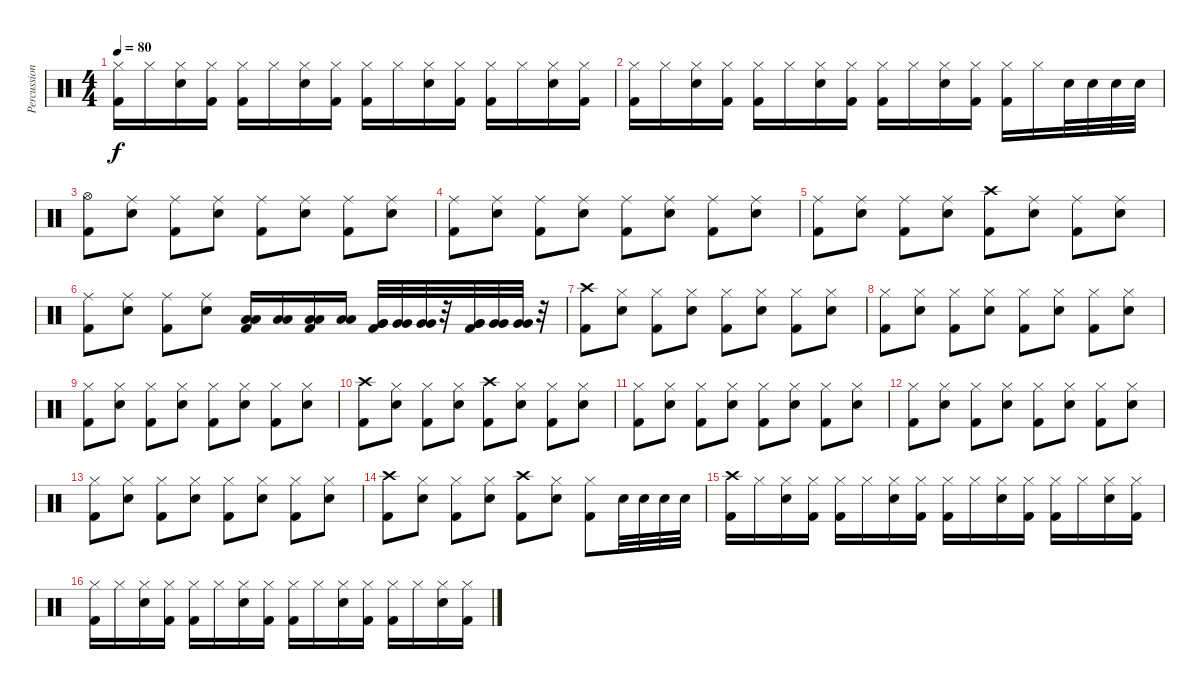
\track ("Percussion" "Percussion") {instrument percussion}
\staff {score}
\articulation defaults
\ts (4 4)
\tempo 80
\clef neutral
\ks c
("Hi-Hat (closed)" "Kick (hit) 2").16{dy f} "Hi-Hat (closed)".16 ("Hi-Hat (closed)" "Snare (hit) 2").16 ("Hi-Hat (closed)" "Kick (hit) 2").16 ("Hi-Hat (closed)" "Kick (hit) 2").16 "Hi-Hat (closed)".16 ("Hi-Hat (closed)" "Snare (hit) 2").16 ("Hi-Hat (closed)" "Kick (hit) 2").16 ("Hi-Hat (closed)" "Kick (hit) 2").16 "Hi-Hat (closed)".16 ("Hi-Hat (closed)" "Snare (hit) 2").16 ("Hi-Hat (closed)" "Kick (hit) 2").16 ("Hi-Hat (closed)" "Kick (hit) 2").16 "Hi-Hat (closed)".16 ("Hi-Hat (closed)" "Snare (hit) 2").16 ("Hi-Hat (closed)" "Kick (hit) 2").16 |
("Hi-Hat (closed)" "Kick (hit) 2").16 "Hi-Hat (closed)".16 ("Hi-Hat (closed)" "Snare (hit) 2").16 ("Hi-Hat (closed)" "Kick (hit) 2").16 ("Hi-Hat (closed)" "Kick (hit) 2").16 "Hi-Hat (closed)".16 ("Hi-Hat (closed)" "Snare (hit) 2").16 ("Hi-Hat (closed)" "Kick (hit) 2").16 ("Hi-Hat (closed)" "Kick (hit) 2").16 "Hi-Hat (closed)".16 ("Hi-Hat (closed)" "Snare (hit) 2").16 ("Hi-Hat (closed)" "Kick (hit) 2").16 ("Hi-Hat (closed)" "Kick (hit) 2").16 "Hi-Hat (closed)".16 "Snare (hit) 2".32 "Snare (hit) 2".32 "Snare (hit) 2".32 "Snare (hit) 2".32 |
("Hi-Hat (open)" "Kick (hit) 2").8 ("Ride (middle)" "Snare (hit) 2").8 ("Ride (middle)" "Kick (hit) 2").8 ("Ride (middle)" "Snare (hit) 2").8 ("Ride (middle)" "Kick (hit) 2").8 ("Ride (middle)" "Snare (hit) 2").8 ("Ride (middle)" "Kick (hit) 2").8 ("Ride (middle)" "Snare (hit) 2").8 |
("Ride (middle)" "Kick (hit) 2").8 ("Ride (middle)" "Snare (hit) 2").8 ("Ride (middle)" "Kick (hit) 2").8 ("Ride (middle)" "Snare (hit) 2").8 ("Ride (middle)" "Kick (hit) 2").8 ("Ride (middle)" "Snare (hit) 2").8 ("Ride (middle)" "Kick (hit) 2").8 ("Ride (middle)" "Snare (hit) 2").8 |
("Ride (middle)" "Kick (hit) 2").8 ("Ride (middle)" "Snare (hit) 2").8 ("Ride (middle)" "Kick (hit) 2").8 ("Ride (middle)" "Snare (hit) 2").8 ("Crash high (hit)" "Kick (hit) 2").8 ("Ride (middle)" "Snare (hit) 2").8 ("Ride (middle)" "Kick (hit) 2").8 ("Ride (middle)" "Snare (hit) 2").8 |
("Ride (middle)" "Kick (hit) 2").8 ("Ride (middle)" "Snare (hit) 2").8 ("Ride (middle)" "Kick (hit) 2").8 ("Ride (middle)" "Snare (hit) 2").8 ("Low Tom (hit)" "Low Tom (hit)" "Kick (hit) 2").16 ("Low Tom (hit)" "Low Tom (hit)").16 ("Low Tom (hit)" "Low Tom (hit)" "Kick (hit) 2").16 ("Low Tom (hit)" "Low Tom (hit)").16 ("Very Low Tom (hit)" "Very Low Tom (hit)" "Kick (hit) 2").32 ("Very Low Tom (hit)" "Very Low Tom (hit)").32 ("Very Low Tom (hit)" "Very Low Tom (hit)").32 r.32 ("Very Low Tom (hit)" "Very Low Tom (hit)" "Kick (hit) 2").32 ("Very Low Tom (hit)" "Very Low Tom (hit)").32 ("Very Low Tom (hit)" "Very Low Tom (hit)").32 r.32 |
("Crash high (hit)" "Kick (hit) 2").8 ("Hi-Hat (closed)" "Snare (hit) 2").8 ("Hi-Hat (closed)" "Kick (hit) 2").8 ("Hi-Hat (closed)" "Snare (hit) 2").8 ("Hi-Hat (closed)" "Kick (hit) 2").8 ("Hi-Hat (closed)" "Snare (hit) 2").8 ("Hi-Hat (closed)" "Kick (hit) 2").8 ("Hi-Hat (closed)" "Snare (hit) 2").8 |
("Hi-Hat (closed)" "Kick (hit) 2").8 ("Hi-Hat (closed)" "Snare (hit) 2").8 ("Hi-Hat (closed)" "Kick (hit) 2").8 ("Hi-Hat (closed)" "Snare (hit) 2").8 ("Hi-Hat (closed)" "Kick (hit) 2").8 ("Hi-Hat (closed)" "Snare (hit) 2").8 ("Hi-Hat (closed)" "Kick (hit) 2").8 ("Hi-Hat (closed)" "Snare (hit) 2").8 |
("Hi-Hat (closed)" "Kick (hit) 2").8 ("Hi-Hat (closed)" "Snare (hit) 2").8 ("Hi-Hat (closed)" "Kick (hit) 2").8 ("Hi-Hat (closed)" "Snare (hit) 2").8 ("Hi-Hat (closed)" "Kick (hit) 2").8 ("Hi-Hat (closed)" "Snare (hit) 2").8 ("Hi-Hat (closed)" "Kick (hit) 2").8 ("Hi-Hat (closed)" "Snare (hit) 2").8 |
("Crash high (hit)" "Kick (hit) 2").8 ("Hi-Hat (closed)" "Snare (hit) 2").8 ("Hi-Hat (closed)" "Kick (hit) 2").8 ("Hi-Hat (closed)" "Snare (hit) 2").8 ("Crash high (hit)" "Kick (hit) 2").8 ("Hi-Hat (closed)" "Snare (hit) 2").8 ("Hi-Hat (closed)" "Kick (hit) 2").8 ("Hi-Hat (closed)" "Snare (hit) 2").8 |
("Hi-Hat (closed)" "Kick (hit) 2").8 ("Hi-Hat (closed)" "Snare (hit) 2").8 ("Hi-Hat (closed)" "Kick (hit) 2").8 ("Hi-Hat (closed)" "Snare (hit) 2").8 ("Hi-Hat (closed)" "Kick (hit) 2").8 ("Hi-Hat (closed)" "Snare (hit) 2").8 ("Hi-Hat (closed)" "Kick (hit) 2").8 ("Hi-Hat (closed)" "Snare (hit) 2").8 |
("Hi-Hat (closed)" "Kick (hit) 2").8 ("Hi-Hat (closed)" "Snare (hit) 2").8 ("Hi-Hat (closed)" "Kick (hit) 2").8 ("Hi-Hat (closed)" "Snare (hit) 2").8 ("Hi-Hat (closed)" "Kick (hit) 2").8 ("Hi-Hat (closed)" "Snare (hit) 2").8 ("Hi-Hat (closed)" "Kick (hit) 2").8 ("Hi-Hat (closed)" "Snare (hit) 2").8 |
("Hi-Hat (closed)" "Kick (hit) 2").8 ("Hi-Hat (closed)" "Snare (hit) 2").8 ("Hi-Hat (closed)" "Kick (hit) 2").8 ("Hi-Hat (closed)" "Snare (hit) 2").8 ("Hi-Hat (closed)" "Kick (hit) 2").8 ("Hi-Hat (closed)" "Snare (hit) 2").8 ("Hi-Hat (closed)" "Kick (hit) 2").8 ("Hi-Hat (closed)" "Snare (hit) 2").8 |
("Crash high (hit)" "Kick (hit) 2").8 ("Hi-Hat (closed)" "Snare (hit) 2").8 ("Hi-Hat (closed)" "Kick (hit) 2").8 ("Hi-Hat (closed)" "Snare (hit) 2").8 ("Crash high (hit)" "Kick (hit) 2").8 ("Hi-Hat (closed)" "Snare (hit) 2").8 ("Hi-Hat (closed)" "Kick (hit) 2").8 "Snare (hit) 2".32 "Snare (hit) 2".32 "Snare (hit) 2".32 "Snare (hit) 2".32 |
("Crash high (hit)" "Kick (hit) 2").16 "Hi-Hat (closed)".16 ("Hi-Hat (closed)" "Snare (hit) 2").16 ("Hi-Hat (closed)" "Kick (hit) 2").16 ("Hi-Hat (closed)" "Kick (hit) 2").16 "Hi-Hat (closed)".16 ("Hi-Hat (closed)" "Snare (hit) 2").16 ("Hi-Hat (closed)" "Kick (hit) 2").16 ("Hi-Hat (closed)" "Kick (hit) 2").16 "Hi-Hat (closed)".16 ("Hi-Hat (closed)" "Snare (hit) 2").16 ("Hi-Hat (closed)" "Kick (hit) 2").16 ("Hi-Hat (closed)" "Kick (hit) 2").16 "Hi-Hat (closed)".16 ("Hi-Hat (closed)" "Snare (hit) 2").16 ("Hi-Hat (closed)" "Kick (hit) 2").16 |
("Hi-Hat (closed)" "Kick (hit) 2").16 "Hi-Hat (closed)".16 ("Hi-Hat (closed)" "Snare (hit) 2").16 ("Hi-Hat (closed)" "Kick (hit) 2").16 ("Hi-Hat (closed)" "Kick (hit) 2").16 "Hi-Hat (closed)".16 ("Hi-Hat (closed)" "Snare (hit) 2").16 ("Hi-Hat (closed)" "Kick (hit) 2").16 ("Hi-Hat (closed)" "Kick (hit) 2").16 "Hi-Hat (closed)".16 ("Hi-Hat (closed)" "Snare (hit) 2").16 ("Hi-Hat (closed)" "Kick (hit) 2").16 ("Hi-Hat (closed)" "Kick (hit) 2").16 "Hi-Hat (closed)".16 ("Hi-Hat (closed)" "Snare (hit) 2").16 ("Hi-Hat (closed)" "Kick (hit) 2").16
